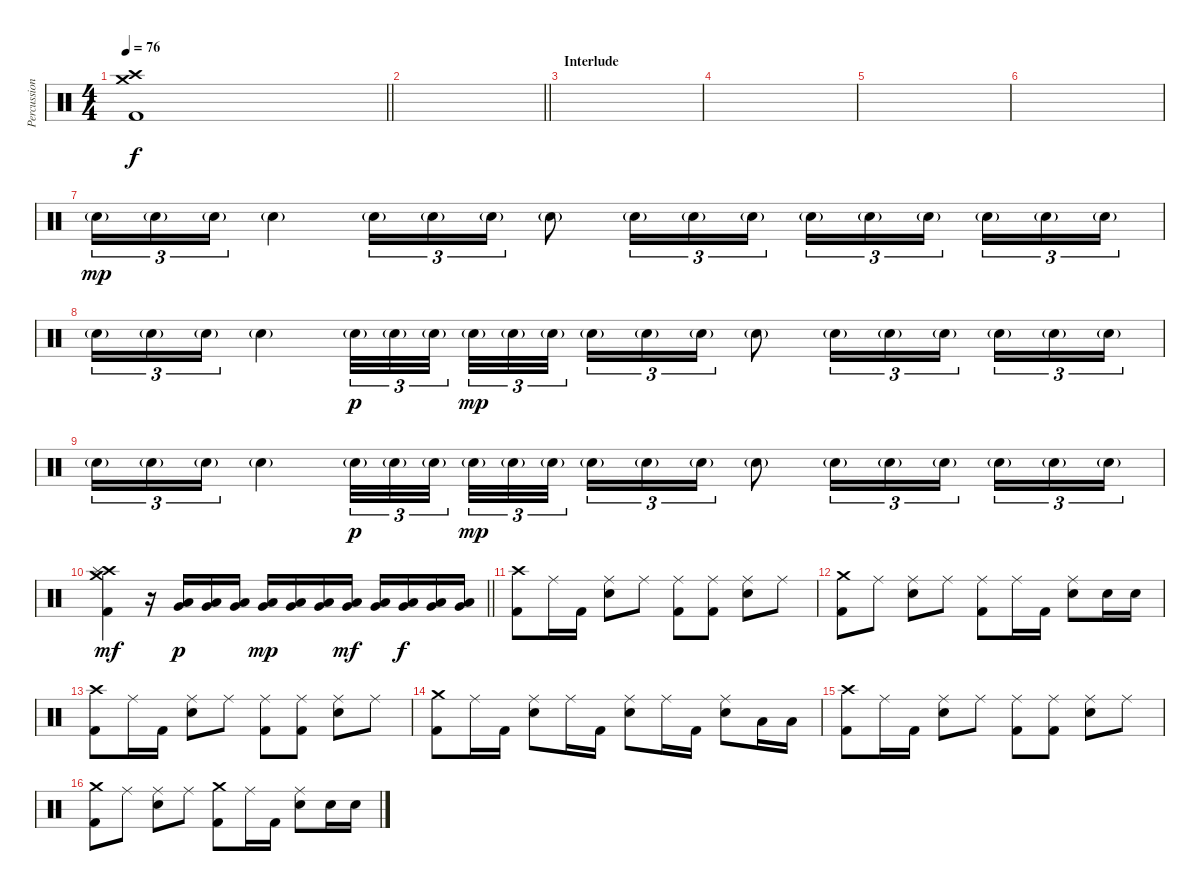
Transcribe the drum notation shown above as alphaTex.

\track ("Percussion" "Percussion") {instrument percussion}
\staff {score}
\articulation defaults
\ts (4 4)
\tempo 76
\clef neutral
\barLineRight lightlight
\ks c
("Crash high (hit)" "Crash medium (hit)" "Kick (hit) 2").1{dy f} |
\barLineRight lightlight
|
\section ("" "Interlude")
|
|
|
|
"Snare (hit) 2"{g}.16{tu (3 2) dy mp} "Snare (hit) 2"{g}.16{tu (3 2)} "Snare (hit) 2"{g}.16{tu (3 2)} "Snare (hit) 2"{g}.4 "Snare (hit) 2"{g}.16{tu (3 2)} "Snare (hit) 2"{g}.16{tu (3 2)} "Snare (hit) 2"{g}.16{tu (3 2)} "Snare (hit) 2"{g}.8 "Snare (hit) 2"{g}.16{tu (3 2)} "Snare (hit) 2"{g}.16{tu (3 2)} "Snare (hit) 2"{g}.16{tu (3 2)} "Snare (hit) 2"{g}.16{tu (3 2)} "Snare (hit) 2"{g}.16{tu (3 2)} "Snare (hit) 2"{g}.16{tu (3 2) beam splitsecondary} "Snare (hit) 2"{g}.16{tu (3 2)} "Snare (hit) 2"{g}.16{tu (3 2)} "Snare (hit) 2"{g}.16{tu (3 2)} |
"Snare (hit) 2"{g}.16{tu (3 2)} "Snare (hit) 2"{g}.16{tu (3 2)} "Snare (hit) 2"{g}.16{tu (3 2)} "Snare (hit) 2"{g}.4 "Snare (hit) 2"{g}.32{tu (3 2) dy p} "Snare (hit) 2"{g}.32{tu (3 2)} "Snare (hit) 2"{g}.32{tu (3 2) beam splitsecondary} "Snare (hit) 2"{g}.32{tu (3 2) dy mp} "Snare (hit) 2"{g}.32{tu (3 2)} "Snare (hit) 2"{g}.32{tu (3 2)} "Snare (hit) 2"{g}.16{tu (3 2)} "Snare (hit) 2"{g}.16{tu (3 2)} "Snare (hit) 2"{g}.16{tu (3 2)} "Snare (hit) 2"{g}.8 "Snare (hit) 2"{g}.16{tu (3 2)} "Snare (hit) 2"{g}.16{tu (3 2)} "Snare (hit) 2"{g}.16{tu (3 2) beam splitsecondary} "Snare (hit) 2"{g}.16{tu (3 2)} "Snare (hit) 2"{g}.16{tu (3 2)} "Snare (hit) 2"{g}.16{tu (3 2)} |
"Snare (hit) 2"{g}.16{tu (3 2)} "Snare (hit) 2"{g}.16{tu (3 2)} "Snare (hit) 2"{g}.16{tu (3 2)} "Snare (hit) 2"{g}.4 "Snare (hit) 2"{g}.32{tu (3 2) dy p} "Snare (hit) 2"{g}.32{tu (3 2)} "Snare (hit) 2"{g}.32{tu (3 2) beam splitsecondary} "Snare (hit) 2"{g}.32{tu (3 2) dy mp} "Snare (hit) 2"{g}.32{tu (3 2)} "Snare (hit) 2"{g}.32{tu (3 2)} "Snare (hit) 2"{g}.16{tu (3 2)} "Snare (hit) 2"{g}.16{tu (3 2)} "Snare (hit) 2"{g}.16{tu (3 2)} "Snare (hit) 2"{g}.8 "Snare (hit) 2"{g}.16{tu (3 2)} "Snare (hit) 2"{g}.16{tu (3 2)} "Snare (hit) 2"{g}.16{tu (3 2) beam splitsecondary} "Snare (hit) 2"{g}.16{tu (3 2)} "Snare (hit) 2"{g}.16{tu (3 2)} "Snare (hit) 2"{g}.16{tu (3 2)} |
\barLineRight lightlight
("Crash high (hit)" "Crash medium (hit)" "Splash (hit)" "Kick (hit) 2").4{dy mf} r.16 ("Very Low Tom (hit)" "Low Floor Tom (hit)").16{dy p} ("Very Low Tom (hit)" "Low Floor Tom (hit)").16 ("Very Low Tom (hit)" "Low Floor Tom (hit)").16 ("Very Low Tom (hit)" "Low Floor Tom (hit)").16{dy mp} ("Very Low Tom (hit)" "Low Floor Tom (hit)").16 ("Very Low Tom (hit)" "Low Floor Tom (hit)").16 ("Very Low Tom (hit)" "Low Floor Tom (hit)").16{dy mf} ("Very Low Tom (hit)" "Low Floor Tom (hit)").16 ("Very Low Tom (hit)" "Low Floor Tom (hit)").16{dy f} ("Very Low Tom (hit)" "Low Floor Tom (hit)").16 ("Very Low Tom (hit)" "Low Floor Tom (hit)").16 |
("Crash high (hit)" "Kick (hit) 2").8 "Ride (middle)".16 "Kick (hit) 2".16 ("Ride (middle)" "Electric Snare (hit)").8 "Ride (middle)".8 ("Ride (middle)" "Kick (hit) 2").8 ("Ride (middle)" "Kick (hit) 2").8 ("Ride (middle)" "Electric Snare (hit)").8 "Ride (middle)".8 |
("Crash medium (hit)" "Kick (hit) 2").8 "Ride (middle)".8 ("Ride (middle)" "Electric Snare (hit)").8 "Ride (middle)".8 ("Ride (middle)" "Kick (hit) 2").8 "Ride (middle)".16 "Kick (hit) 2".16 ("Ride (middle)" "Electric Snare (hit)").8 "Electric Snare (hit)".16 "Electric Snare (hit)".16 |
("Crash high (hit)" "Kick (hit) 2").8 "Ride (middle)".16 "Kick (hit) 2".16 ("Ride (middle)" "Electric Snare (hit)").8 "Ride (middle)".8 ("Ride (middle)" "Kick (hit) 2").8 ("Ride (middle)" "Kick (hit) 2").8 ("Ride (middle)" "Electric Snare (hit)").8 "Ride (middle)".8 |
("Crash medium (hit)" "Kick (hit) 2").8 "Ride (middle)".16 "Kick (hit) 2".16 ("Ride (middle)" "Electric Snare (hit)").8 "Ride (middle)".16 "Kick (hit) 2".16 ("Ride (middle)" "Electric Snare (hit)").8 "Ride (middle)".16 "Kick (hit) 2".16 ("Ride (middle)" "Electric Snare (hit)").8 "Low Floor Tom (hit)".16 "Low Floor Tom (hit)".16 |
("Crash high (hit)" "Kick (hit) 2").8 "Ride (middle)".16 "Kick (hit) 2".16 ("Ride (middle)" "Electric Snare (hit)").8 "Ride (middle)".8 ("Ride (middle)" "Kick (hit) 2").8 ("Ride (middle)" "Kick (hit) 2").8 ("Ride (middle)" "Electric Snare (hit)").8 "Ride (middle)".8 |
("Crash medium (hit)" "Kick (hit) 2").8 "Ride (middle)".8 ("Ride (middle)" "Electric Snare (hit)").8 "Ride (middle)".8 ("Crash medium (hit)" "Kick (hit) 2").8 "Ride (middle)".16 "Kick (hit) 2".16 ("Ride (middle)" "Electric Snare (hit)").8 "Electric Snare (hit)".16 "Electric Snare (hit)".16
